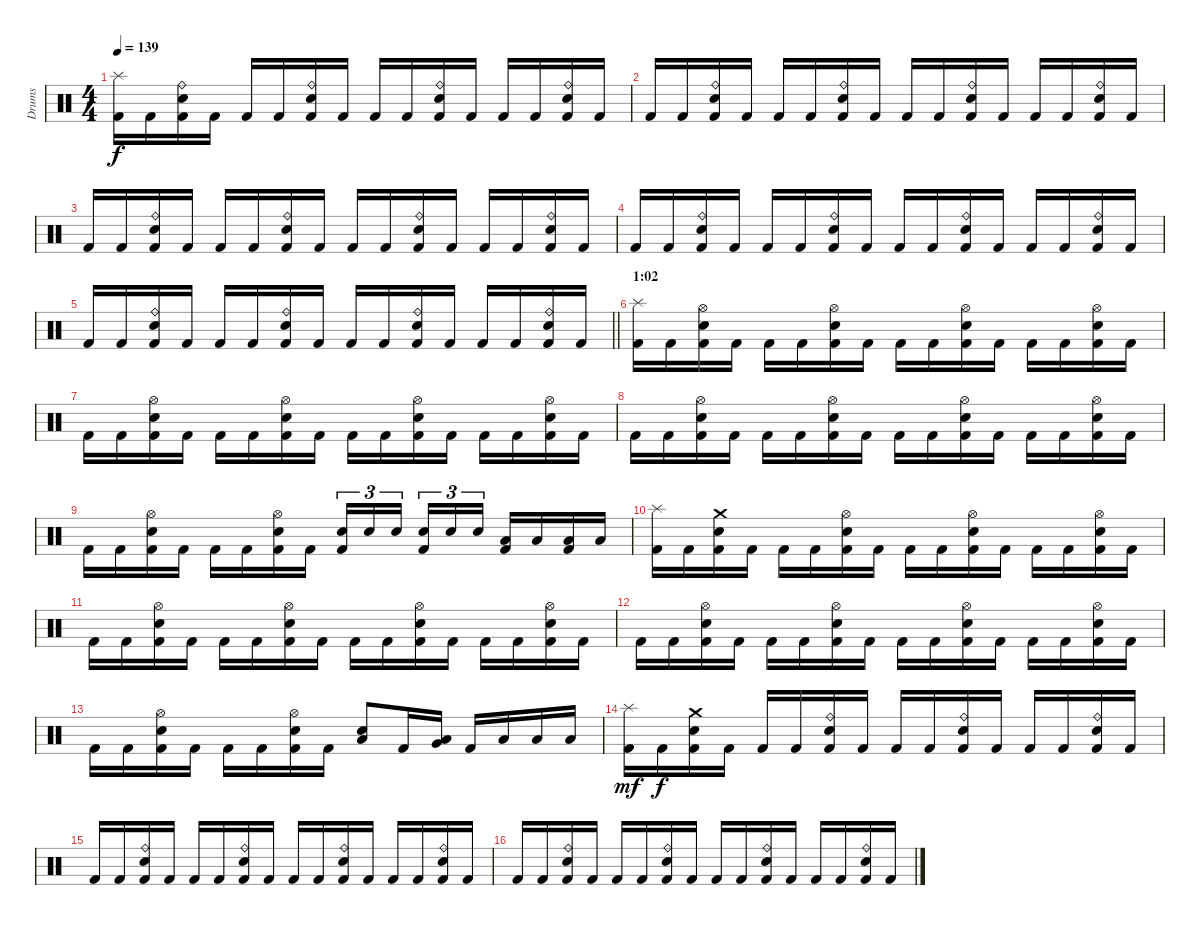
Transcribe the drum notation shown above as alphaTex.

\track ("Drums" "Drums") {instrument percussion}
\staff {score}
\articulation defaults
\ts (4 4)
\tempo 139
\clef neutral
\ks c
("Splash (hit)" "Kick (hit) 2").16{dy f} "Kick (hit) 2".16 ("Ride (bell)" "Electric Snare (hit)" "Kick (hit) 2").16 "Kick (hit) 2".16 "Kick (hit) 2".16 "Kick (hit) 2".16 ("Ride (bell)" "Electric Snare (hit)" "Kick (hit) 2").16 "Kick (hit) 2".16 "Kick (hit) 2".16 "Kick (hit) 2".16 ("Ride (bell)" "Electric Snare (hit)" "Kick (hit) 2").16 "Kick (hit) 2".16 "Kick (hit) 2".16 "Kick (hit) 2".16 ("Ride (bell)" "Electric Snare (hit)" "Kick (hit) 2").16 "Kick (hit) 2".16 |
"Kick (hit) 2".16 "Kick (hit) 2".16 ("Ride (bell)" "Electric Snare (hit)" "Kick (hit) 2").16 "Kick (hit) 2".16 "Kick (hit) 2".16 "Kick (hit) 2".16 ("Ride (bell)" "Electric Snare (hit)" "Kick (hit) 2").16 "Kick (hit) 2".16 "Kick (hit) 2".16 "Kick (hit) 2".16 ("Ride (bell)" "Electric Snare (hit)" "Kick (hit) 2").16 "Kick (hit) 2".16 "Kick (hit) 2".16 "Kick (hit) 2".16 ("Ride (bell)" "Electric Snare (hit)" "Kick (hit) 2").16 "Kick (hit) 2".16 |
"Kick (hit) 2".16 "Kick (hit) 2".16 ("Ride (bell)" "Electric Snare (hit)" "Kick (hit) 2").16 "Kick (hit) 2".16 "Kick (hit) 2".16 "Kick (hit) 2".16 ("Ride (bell)" "Electric Snare (hit)" "Kick (hit) 2").16 "Kick (hit) 2".16 "Kick (hit) 2".16 "Kick (hit) 2".16 ("Ride (bell)" "Electric Snare (hit)" "Kick (hit) 2").16 "Kick (hit) 2".16 "Kick (hit) 2".16 "Kick (hit) 2".16 ("Ride (bell)" "Electric Snare (hit)" "Kick (hit) 2").16 "Kick (hit) 2".16 |
"Kick (hit) 2".16 "Kick (hit) 2".16 ("Ride (bell)" "Electric Snare (hit)" "Kick (hit) 2").16 "Kick (hit) 2".16 "Kick (hit) 2".16 "Kick (hit) 2".16 ("Ride (bell)" "Electric Snare (hit)" "Kick (hit) 2").16 "Kick (hit) 2".16 "Kick (hit) 2".16 "Kick (hit) 2".16 ("Ride (bell)" "Electric Snare (hit)" "Kick (hit) 2").16 "Kick (hit) 2".16 "Kick (hit) 2".16 "Kick (hit) 2".16 ("Ride (bell)" "Electric Snare (hit)" "Kick (hit) 2").16 "Kick (hit) 2".16 |
\barLineRight lightlight "Kick (hit) 2".16 "Kick (hit) 2".16
("Ride (bell)" "Electric Snare (hit)" "Kick (hit) 2").16 "Kick (hit) 2".16 "Kick (hit) 2".16 "Kick (hit) 2".16 ("Ride (bell)" "Electric Snare (hit)" "Kick (hit) 2").16 "Kick (hit) 2".16 "Kick (hit) 2".16 "Kick (hit) 2".16 ("Ride (bell)" "Electric Snare (hit)" "Kick (hit) 2").16 "Kick (hit) 2".16 "Kick (hit) 2".16 "Kick (hit) 2".16 ("Ride (bell)" "Electric Snare (hit)" "Kick (hit) 2").16 "Kick (hit) 2".16 |
\section ("" "1:02")
("Splash (hit)" "Kick (hit) 2").16 "Kick (hit) 2".16 ("Hi-Hat (open)" "Electric Snare (hit)" "Kick (hit) 2").16 "Kick (hit) 2".16 "Kick (hit) 2".16 "Kick (hit) 2".16 ("Hi-Hat (open)" "Electric Snare (hit)" "Kick (hit) 2").16 "Kick (hit) 2".16 "Kick (hit) 2".16 "Kick (hit) 2".16 ("Hi-Hat (open)" "Electric Snare (hit)" "Kick (hit) 2").16 "Kick (hit) 2".16 "Kick (hit) 2".16 "Kick (hit) 2".16 ("Hi-Hat (open)" "Electric Snare (hit)" "Kick (hit) 2").16 "Kick (hit) 2".16 |
"Kick (hit) 2".16 "Kick (hit) 2".16 ("Hi-Hat (open)" "Electric Snare (hit)" "Kick (hit) 2").16 "Kick (hit) 2".16 "Kick (hit) 2".16 "Kick (hit) 2".16 ("Hi-Hat (open)" "Electric Snare (hit)" "Kick (hit) 2").16 "Kick (hit) 2".16 "Kick (hit) 2".16 "Kick (hit) 2".16 ("Hi-Hat (open)" "Electric Snare (hit)" "Kick (hit) 2").16 "Kick (hit) 2".16 "Kick (hit) 2".16 "Kick (hit) 2".16 ("Hi-Hat (open)" "Electric Snare (hit)" "Kick (hit) 2").16 "Kick (hit) 2".16 |
"Kick (hit) 2".16 "Kick (hit) 2".16 ("Hi-Hat (open)" "Electric Snare (hit)" "Kick (hit) 2").16 "Kick (hit) 2".16 "Kick (hit) 2".16 "Kick (hit) 2".16 ("Hi-Hat (open)" "Electric Snare (hit)" "Kick (hit) 2").16 "Kick (hit) 2".16 "Kick (hit) 2".16 "Kick (hit) 2".16 ("Hi-Hat (open)" "Electric Snare (hit)" "Kick (hit) 2").16 "Kick (hit) 2".16 "Kick (hit) 2".16 "Kick (hit) 2".16 ("Hi-Hat (open)" "Electric Snare (hit)" "Kick (hit) 2").16 "Kick (hit) 2".16 |
"Kick (hit) 2".16 "Kick (hit) 2".16 ("Hi-Hat (open)" "Electric Snare (hit)" "Kick (hit) 2").16 "Kick (hit) 2".16 "Kick (hit) 2".16 "Kick (hit) 2".16 ("Hi-Hat (open)" "Electric Snare (hit)" "Kick (hit) 2").16 "Kick (hit) 2".16 ("Electric Snare (hit)" "Kick (hit) 2").16{tu (3 2)} "Electric Snare (hit)".16{tu (3 2)} "Electric Snare (hit)".16{tu (3 2) beam splitsecondary} ("Electric Snare (hit)" "Kick (hit) 2").16{tu (3 2)} "Electric Snare (hit)".16{tu (3 2)} "Electric Snare (hit)".16{tu (3 2)} ("Low Floor Tom (hit)" "Kick (hit) 2").16 "Low Floor Tom (hit)".16 ("Low Floor Tom (hit)" "Kick (hit) 2").16 "Low Floor Tom (hit)".16 |
("Splash (hit)" "Kick (hit) 2").16 "Kick (hit) 2".16 ("Crash medium (hit)" "Electric Snare (hit)" "Kick (hit) 2").16 "Kick (hit) 2".16 "Kick (hit) 2".16 "Kick (hit) 2".16 ("Hi-Hat (open)" "Electric Snare (hit)" "Kick (hit) 2").16 "Kick (hit) 2".16 "Kick (hit) 2".16 "Kick (hit) 2".16 ("Hi-Hat (open)" "Electric Snare (hit)" "Kick (hit) 2").16 "Kick (hit) 2".16 "Kick (hit) 2".16 "Kick (hit) 2".16 ("Hi-Hat (open)" "Electric Snare (hit)" "Kick (hit) 2").16 "Kick (hit) 2".16 |
"Kick (hit) 2".16 "Kick (hit) 2".16 ("Hi-Hat (open)" "Electric Snare (hit)" "Kick (hit) 2").16 "Kick (hit) 2".16 "Kick (hit) 2".16 "Kick (hit) 2".16 ("Hi-Hat (open)" "Electric Snare (hit)" "Kick (hit) 2").16 "Kick (hit) 2".16 "Kick (hit) 2".16 "Kick (hit) 2".16 ("Hi-Hat (open)" "Electric Snare (hit)" "Kick (hit) 2").16 "Kick (hit) 2".16 "Kick (hit) 2".16 "Kick (hit) 2".16 ("Hi-Hat (open)" "Electric Snare (hit)" "Kick (hit) 2").16 "Kick (hit) 2".16 |
"Kick (hit) 2".16 "Kick (hit) 2".16 ("Hi-Hat (open)" "Electric Snare (hit)" "Kick (hit) 2").16 "Kick (hit) 2".16 "Kick (hit) 2".16 "Kick (hit) 2".16 ("Hi-Hat (open)" "Electric Snare (hit)" "Kick (hit) 2").16 "Kick (hit) 2".16 "Kick (hit) 2".16 "Kick (hit) 2".16 ("Hi-Hat (open)" "Electric Snare (hit)" "Kick (hit) 2").16 "Kick (hit) 2".16 "Kick (hit) 2".16 "Kick (hit) 2".16 ("Hi-Hat (open)" "Electric Snare (hit)" "Kick (hit) 2").16 "Kick (hit) 2".16 |
"Kick (hit) 2".16 "Kick (hit) 2".16 ("Hi-Hat (open)" "Electric Snare (hit)" "Kick (hit) 2").16 "Kick (hit) 2".16 "Kick (hit) 2".16 "Kick (hit) 2".16 ("Hi-Hat (open)" "Electric Snare (hit)" "Kick (hit) 2").16 "Kick (hit) 2".16 ("Low Tom (hit)" "Electric Snare (hit)").8 "Kick (hit) 2".16 ("Very Low Tom (hit)" "Low Floor Tom (hit)").16 "Kick (hit) 2".16 "Low Floor Tom (hit)".16 "Low Floor Tom (hit)".16 "Low Floor Tom (hit)".16 |
("Splash (hit)" "Kick (hit) 2").16{dy mf} "Kick (hit) 2".16{dy f} ("Electric Snare (hit)" "Crash medium (hit)" "Kick (hit) 2").16 "Kick (hit) 2".16 "Kick (hit) 2".16 "Kick (hit) 2".16 ("Electric Snare (hit)" "Ride (bell)" "Kick (hit) 2").16 "Kick (hit) 2".16 "Kick (hit) 2".16 "Kick (hit) 2".16 ("Electric Snare (hit)" "Ride (bell)" "Kick (hit) 2").16 "Kick (hit) 2".16 "Kick (hit) 2".16 "Kick (hit) 2".16 ("Electric Snare (hit)" "Ride (bell)" "Kick (hit) 2").16 "Kick (hit) 2".16 |
"Kick (hit) 2".16 "Kick (hit) 2".16 ("Electric Snare (hit)" "Ride (bell)" "Kick (hit) 2").16 "Kick (hit) 2".16 "Kick (hit) 2".16 "Kick (hit) 2".16 ("Electric Snare (hit)" "Ride (bell)" "Kick (hit) 2").16 "Kick (hit) 2".16 "Kick (hit) 2".16 "Kick (hit) 2".16 ("Electric Snare (hit)" "Ride (bell)" "Kick (hit) 2").16 "Kick (hit) 2".16 "Kick (hit) 2".16 "Kick (hit) 2".16 ("Electric Snare (hit)" "Ride (bell)" "Kick (hit) 2").16 "Kick (hit) 2".16 |
"Kick (hit) 2".16 "Kick (hit) 2".16 ("Electric Snare (hit)" "Ride (bell)" "Kick (hit) 2").16 "Kick (hit) 2".16 "Kick (hit) 2".16 "Kick (hit) 2".16 ("Electric Snare (hit)" "Ride (bell)" "Kick (hit) 2").16 "Kick (hit) 2".16 "Kick (hit) 2".16 "Kick (hit) 2".16 ("Electric Snare (hit)" "Ride (bell)" "Kick (hit) 2").16 "Kick (hit) 2".16 "Kick (hit) 2".16 "Kick (hit) 2".16 ("Electric Snare (hit)" "Ride (bell)" "Kick (hit) 2").16 "Kick (hit) 2".16
